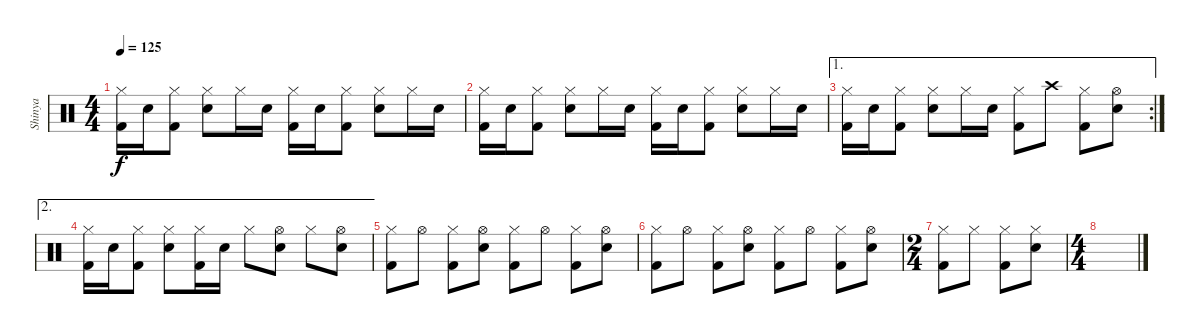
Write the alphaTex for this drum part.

\track ("Shinya" "Shinya") {instrument percussion}
\staff {score}
\articulation defaults
\ts (4 4)
\tempo 125
\clef neutral
\ks c
("Hi-Hat (closed)" "Kick (hit) 2").16{dy f} "Snare (hit) 2".16 ("Hi-Hat (closed)" "Kick (hit) 2").8 ("Hi-Hat (closed)" "Snare (hit) 2").8 "Hi-Hat (closed)".16 "Snare (hit) 2".16 ("Hi-Hat (closed)" "Kick (hit) 2").16 "Snare (hit) 2".16 ("Hi-Hat (closed)" "Kick (hit) 2").8 ("Hi-Hat (closed)" "Snare (hit) 2").8 "Hi-Hat (closed)".16 "Snare (hit) 2".16 |
("Hi-Hat (closed)" "Kick (hit) 2").16 "Snare (hit) 2".16 ("Hi-Hat (closed)" "Kick (hit) 2").8 ("Hi-Hat (closed)" "Snare (hit) 2").8 "Hi-Hat (closed)".16 "Snare (hit) 2".16 ("Hi-Hat (closed)" "Kick (hit) 2").16 "Snare (hit) 2".16 ("Hi-Hat (closed)" "Kick (hit) 2").8 ("Hi-Hat (closed)" "Snare (hit) 2").8 "Hi-Hat (closed)".16 "Snare (hit) 2".16 |
\ae 1
\rc 2
("Hi-Hat (closed)" "Kick (hit) 2").16 "Snare (hit) 2".16 ("Hi-Hat (closed)" "Kick (hit) 2").8 ("Hi-Hat (closed)" "Snare (hit) 2").8 "Hi-Hat (closed)".16 "Snare (hit) 2".16 ("Hi-Hat (closed)" "Kick (hit) 2").8 "Crash high (hit)".8 ("Hi-Hat (closed)" "Kick (hit) 2").8 ("Hi-Hat (open)" "Snare (hit) 2").8 |
\ae 2
("Hi-Hat (closed)" "Kick (hit) 2").16 "Snare (hit) 2".16 ("Hi-Hat (closed)" "Kick (hit) 2").8 ("Hi-Hat (closed)" "Snare (hit) 2").8 ("Hi-Hat (closed)" "Kick (hit) 2").16 "Snare (hit) 2".16 "Hi-Hat (closed)".8 ("Hi-Hat (open)" "Snare (hit) 2").8 "Hi-Hat (closed)".8 ("Hi-Hat (open)" "Snare (hit) 2").8 |
("Hi-Hat (closed)" "Kick (hit) 2").8 "Hi-Hat (open)".8 ("Hi-Hat (closed)" "Kick (hit) 2").8 ("Hi-Hat (open)" "Snare (hit) 2").8 ("Hi-Hat (closed)" "Kick (hit) 2").8 "Hi-Hat (open)".8 ("Hi-Hat (closed)" "Kick (hit) 2").8 ("Hi-Hat (open)" "Snare (hit) 2").8 |
("Hi-Hat (closed)" "Kick (hit) 2").8 "Hi-Hat (open)".8 ("Hi-Hat (closed)" "Kick (hit) 2").8 ("Hi-Hat (open)" "Snare (hit) 2").8 ("Hi-Hat (closed)" "Kick (hit) 2").8 "Hi-Hat (open)".8 ("Hi-Hat (closed)" "Kick (hit) 2").8 ("Hi-Hat (open)" "Snare (hit) 2").8 |
\ts (2 4)
("Hi-Hat (closed)" "Kick (hit) 2").8 "Hi-Hat (closed)".8 ("Hi-Hat (closed)" "Kick (hit) 2").8 ("Hi-Hat (closed)" "Snare (hit) 2").8 |
\ts (4 4)
